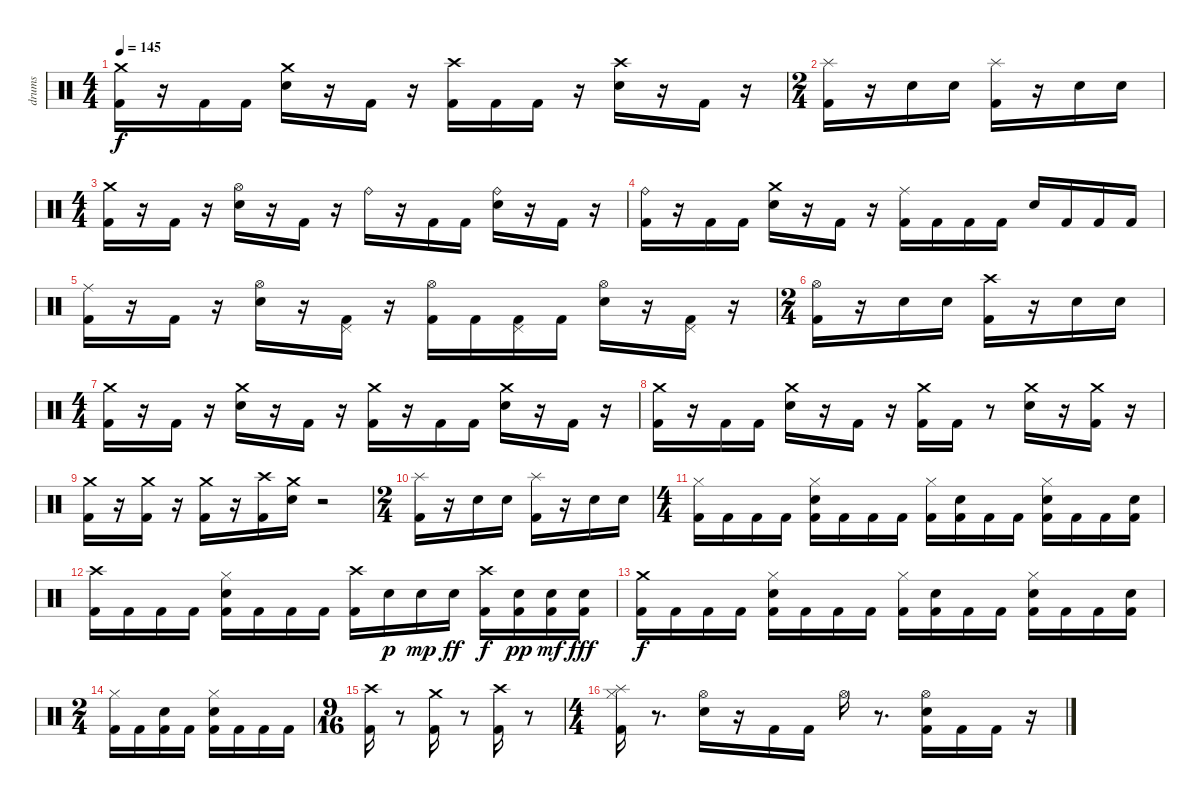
\track ("drums" "drums") {instrument percussion}
\staff {score}
\articulation defaults
\ts (4 4)
\tempo 145
\clef neutral
\ks c
("Kick (hit) 2" "Crash medium (hit)").16{dy f} r.16 "Kick (hit) 2".16 "Kick (hit) 2".16 ("Snare (hit) 2" "Crash medium (hit)").16 r.16 "Kick (hit) 2".16 r.16 ("Kick (hit) 2" "Crash high (hit)").16 "Kick (hit) 2".16 "Kick (hit) 2".16 r.16 ("Snare (hit) 2" "Crash high (hit)").16 r.16 "Kick (hit) 2".16 r.16 |
\ts (2 4)
("Kick (hit) 2" "Splash (hit)").16 r.16 "Snare (hit) 2".16 "Snare (hit) 2".16 ("Kick (hit) 2" "Splash (hit)").16 r.16 "Snare (hit) 2".16 "Snare (hit) 2".16 |
\ts (4 4)
("Kick (hit) 2" "Crash medium (hit)").16 r.16 "Kick (hit) 2".16 r.16 ("Snare (hit) 2" "Hi-Hat (open)").16 r.16 "Kick (hit) 2".16 r.16 "Ride (bell)".16 r.16 "Kick (hit) 2".16 "Kick (hit) 2".16 ("Snare (hit) 2" "Ride (bell)").16 r.16 "Kick (hit) 2".16 r.16 |
("Kick (hit) 2" "Ride (bell)").16 r.16 "Kick (hit) 2".16 "Kick (hit) 2".16 ("Snare (hit) 2" "Crash medium (hit)").16 r.16 "Kick (hit) 2".16 r.16 ("Kick (hit) 2" "Ride (middle)").16 "Kick (hit) 2".16 "Kick (hit) 2".16 "Kick (hit) 2".16 "Snare (hit) 2".16 "Kick (hit) 2".16 "Kick (hit) 2".16 "Kick (hit) 2".16 |
("Kick (hit) 2" "Ride (middle)").16 r.16 "Kick (hit) 2".16 r.16 ("Snare (hit) 2" "Hi-Hat (open)").16 r.16 ("Kick (hit) 2" "Pedal Hi-Hat (hit)").16 r.16 ("Kick (hit) 2" "Hi-Hat (open)").16 "Kick (hit) 2".16 ("Kick (hit) 2" "Pedal Hi-Hat (hit)").16 "Kick (hit) 2".16 ("Snare (hit) 2" "Hi-Hat (open)").16 r.16 ("Kick (hit) 2" "Pedal Hi-Hat (hit)").16 r.16 |
\ts (2 4)
("Kick (hit) 2" "Hi-Hat (open)").16 r.16 "Snare (hit) 2".16 "Snare (hit) 2".16 ("Kick (hit) 2" "Crash high (hit)").16 r.16 "Snare (hit) 2".16 "Snare (hit) 2".16 |
\ts (4 4)
("Kick (hit) 2" "Crash medium (hit)").16 r.16 "Kick (hit) 2".16 r.16 ("Snare (hit) 2" "Crash medium (hit)").16 r.16 "Kick (hit) 2".16 r.16 ("Kick (hit) 2" "Crash medium (hit)").16 r.16 "Kick (hit) 2".16 "Kick (hit) 2".16 ("Snare (hit) 2" "Crash medium (hit)").16 r.16 "Kick (hit) 2".16 r.16 |
("Kick (hit) 2" "Crash medium (hit)").16 r.16 "Kick (hit) 2".16 "Kick (hit) 2".16 ("Snare (hit) 2" "Crash medium (hit)").16 r.16 "Kick (hit) 2".16 r.16 ("Kick (hit) 2" "Crash medium (hit)").16 "Kick (hit) 2".16 r.8 ("Snare (hit) 2" "Crash medium (hit)").16 r.16 ("Kick (hit) 2" "Crash medium (hit)").16 r.16 |
("Kick (hit) 2" "Crash medium (hit)").16 r.16 ("Kick (hit) 2" "Crash medium (hit)").16 r.16 ("Kick (hit) 2" "Crash medium (hit)").16 r.16 ("Kick (hit) 2" "Crash high (hit)").16 ("Snare (hit) 2" "Crash medium (hit)").16 r.2 |
\ts (2 4)
("Kick (hit) 2" "Splash (hit)").16 r.16 "Snare (hit) 2".16 "Snare (hit) 2".16 ("Kick (hit) 2" "Splash (hit)").16 r.16 "Snare (hit) 2".16 "Snare (hit) 2".16 |
\ts (4 4)
("Kick (hit) 2" "Hi-Hat (closed)").16 "Kick (hit) 2".16 "Kick (hit) 2".16 "Kick (hit) 2".16 ("Kick (hit) 2" "Snare (hit) 2" "Hi-Hat (closed)").16 "Kick (hit) 2".16 "Kick (hit) 2".16 "Kick (hit) 2".16 ("Kick (hit) 2" "Hi-Hat (closed)").16 ("Kick (hit) 2" "Snare (hit) 2").16 "Kick (hit) 2".16 "Kick (hit) 2".16 ("Kick (hit) 2" "Snare (hit) 2" "Hi-Hat (closed)").16 "Kick (hit) 2".16 "Kick (hit) 2".16 ("Kick (hit) 2" "Snare (hit) 2").16 |
("Kick (hit) 2" "Crash high (hit)").16 "Kick (hit) 2".16 "Kick (hit) 2".16 "Kick (hit) 2".16 ("Kick (hit) 2" "Snare (hit) 2" "Hi-Hat (closed)").16 "Kick (hit) 2".16 "Kick (hit) 2".16 "Kick (hit) 2".16 ("Kick (hit) 2" "Crash high (hit)").16 "Snare (hit) 2".16{dy p} "Snare (hit) 2".16{dy mp} "Snare (hit) 2".16{dy ff} ("Kick (hit) 2" "Crash high (hit)").16{dy f} ("Kick (hit) 2" "Snare (hit) 2").16{dy pp} ("Kick (hit) 2" "Snare (hit) 2").16{dy mf} ("Kick (hit) 2" "Snare (hit) 2").16{dy fff} |
("Kick (hit) 2" "Crash medium (hit)").16{dy f} "Kick (hit) 2".16 "Kick (hit) 2".16 "Kick (hit) 2".16 ("Kick (hit) 2" "Snare (hit) 2" "Hi-Hat (closed)").16 "Kick (hit) 2".16 "Kick (hit) 2".16 "Kick (hit) 2".16 ("Kick (hit) 2" "Hi-Hat (closed)").16 ("Kick (hit) 2" "Snare (hit) 2").16 "Kick (hit) 2".16 "Kick (hit) 2".16 ("Kick (hit) 2" "Snare (hit) 2" "Hi-Hat (closed)").16 "Kick (hit) 2".16 "Kick (hit) 2".16 ("Kick (hit) 2" "Snare (hit) 2").16 |
\ts (2 4)
("Kick (hit) 2" "Hi-Hat (closed)").16 "Kick (hit) 2".16 ("Kick (hit) 2" "Snare (hit) 2").16 "Kick (hit) 2".16 ("Kick (hit) 2" "Snare (hit) 2" "Hi-Hat (closed)").16 "Kick (hit) 2".16 "Kick (hit) 2".16 "Kick (hit) 2".16 |
\ts (9 16)
("Kick (hit) 2" "Crash high (hit)").16 r.8 ("Kick (hit) 2" "Crash medium (hit)").16 r.8 ("Kick (hit) 2" "Crash high (hit)").16 r.8 |
\ts (4 4)
("Kick (hit) 2" "Hi-Hat (closed)" "Splash (hit)").16 r.8{d} ("Snare (hit) 2" "Hi-Hat (open)").16 r.16 "Kick (hit) 2".16 "Kick (hit) 2".16 "Hi-Hat (open)".16 r.8{d} ("Kick (hit) 2" "Snare (hit) 2" "Hi-Hat (open)").16 "Kick (hit) 2".16 "Kick (hit) 2".16 r.16
